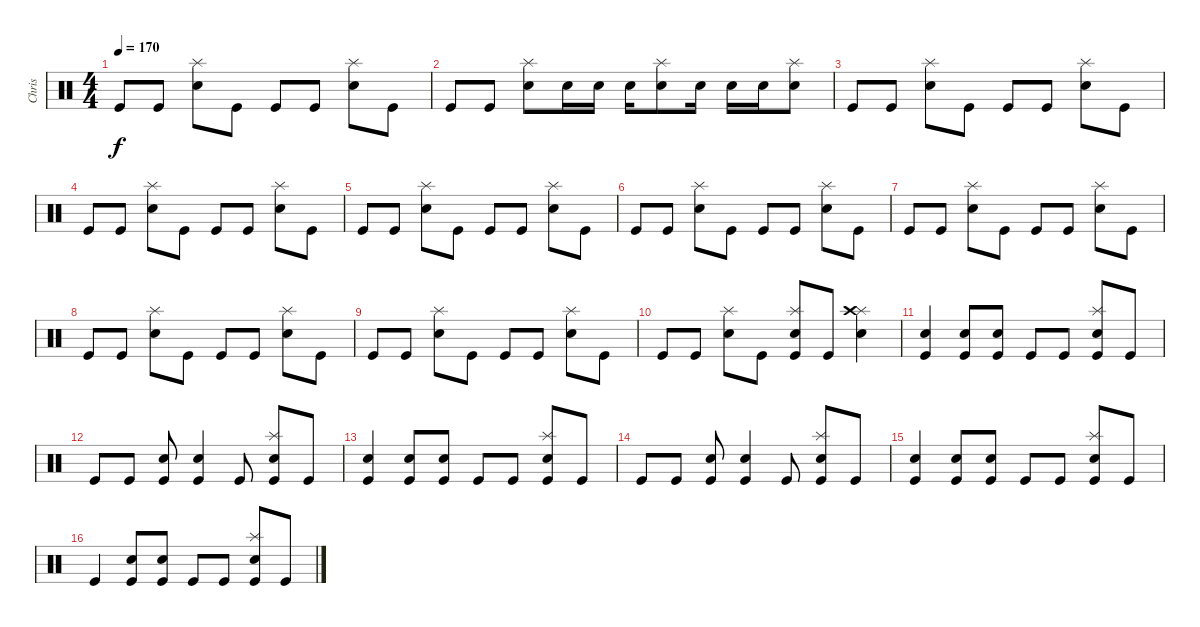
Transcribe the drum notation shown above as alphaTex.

\track ("Chris" "Chris") {instrument percussion}
\staff {score}
\articulation defaults
\ts (4 4)
\tempo 170
\clef neutral
\ks c "Kick (hit)".8{dy f} "Kick (hit)".8
("Splash (hit)" "Snare (hit) 2").8 "Kick (hit)".8 "Kick (hit)".8 "Kick (hit)".8 ("Splash (hit)" "Snare (hit) 2").8 "Kick (hit)".8 |
"Kick (hit)".8 "Kick (hit)".8 ("Splash (hit)" "Snare (hit) 2").8 "Electric Snare (hit)".16 "Electric Snare (hit)".16 "Electric Snare (hit)".16 ("Splash (hit)" "Snare (hit) 2").8 "Electric Snare (hit)".16 "Electric Snare (hit)".16 "Electric Snare (hit)".16 ("Splash (hit)" "Snare (hit) 2").8 |
"Kick (hit)".8 "Kick (hit)".8 ("Splash (hit)" "Snare (hit) 2").8 "Kick (hit)".8 "Kick (hit)".8 "Kick (hit)".8 ("Splash (hit)" "Snare (hit) 2").8 "Kick (hit)".8 |
"Kick (hit)".8 "Kick (hit)".8 ("Splash (hit)" "Snare (hit) 2").8 "Kick (hit)".8 "Kick (hit)".8 "Kick (hit)".8 ("Splash (hit)" "Snare (hit) 2").8 "Kick (hit)".8 |
"Kick (hit)".8 "Kick (hit)".8 ("Splash (hit)" "Snare (hit) 2").8 "Kick (hit)".8 "Kick (hit)".8 "Kick (hit)".8 ("Splash (hit)" "Snare (hit) 2").8 "Kick (hit)".8 |
"Kick (hit)".8 "Kick (hit)".8 ("Splash (hit)" "Snare (hit) 2").8 "Kick (hit)".8 "Kick (hit)".8 "Kick (hit)".8 ("Splash (hit)" "Snare (hit) 2").8 "Kick (hit)".8 |
"Kick (hit)".8 "Kick (hit)".8 ("Splash (hit)" "Snare (hit) 2").8 "Kick (hit)".8 "Kick (hit)".8 "Kick (hit)".8 ("Splash (hit)" "Snare (hit) 2").8 "Kick (hit)".8 |
"Kick (hit)".8 "Kick (hit)".8 ("Splash (hit)" "Snare (hit) 2").8 "Kick (hit)".8 "Kick (hit)".8 "Kick (hit)".8 ("Splash (hit)" "Snare (hit) 2").8 "Kick (hit)".8 |
"Kick (hit)".8 "Kick (hit)".8 ("Splash (hit)" "Snare (hit) 2").8 "Kick (hit)".8 "Kick (hit)".8 "Kick (hit)".8 ("Splash (hit)" "Snare (hit) 2").8 "Kick (hit)".8 |
"Kick (hit)".8 "Kick (hit)".8 ("Splash (hit)" "Snare (hit) 2").8 "Kick (hit)".8 ("Kick (hit)" "Splash (hit)" "Snare (hit) 2").8 "Kick (hit)".8 ("Splash (hit)" "Crash high (hit)" "Snare (hit) 2").4 |
("Kick (hit)" "Snare (hit) 2").4 ("Kick (hit)" "Snare (hit) 2").8 ("Kick (hit)" "Snare (hit) 2").8 "Kick (hit)".8 "Kick (hit)".8 ("Kick (hit)" "Splash (hit)" "Snare (hit) 2").8 "Kick (hit)".8 |
"Kick (hit)".8 "Kick (hit)".8 ("Kick (hit)" "Snare (hit) 2").8 ("Kick (hit)" "Snare (hit) 2").4 "Kick (hit)".8 ("Kick (hit)" "Splash (hit)" "Snare (hit) 2").8 "Kick (hit)".8 |
("Kick (hit)" "Snare (hit) 2").4 ("Kick (hit)" "Snare (hit) 2").8 ("Kick (hit)" "Snare (hit) 2").8 "Kick (hit)".8 "Kick (hit)".8 ("Kick (hit)" "Splash (hit)" "Snare (hit) 2").8 "Kick (hit)".8 |
"Kick (hit)".8 "Kick (hit)".8 ("Kick (hit)" "Snare (hit) 2").8 ("Kick (hit)" "Snare (hit) 2").4 "Kick (hit)".8 ("Kick (hit)" "Splash (hit)" "Snare (hit) 2").8 "Kick (hit)".8 |
("Kick (hit)" "Snare (hit) 2").4 ("Kick (hit)" "Snare (hit) 2").8 ("Kick (hit)" "Snare (hit) 2").8 "Kick (hit)".8 "Kick (hit)".8 ("Kick (hit)" "Splash (hit)" "Snare (hit) 2").8 "Kick (hit)".8 |
"Kick (hit)".4 ("Kick (hit)" "Snare (hit) 2").8 ("Kick (hit)" "Snare (hit) 2").8 "Kick (hit)".8 "Kick (hit)".8 ("Kick (hit)" "Splash (hit)" "Snare (hit) 2").8 "Kick (hit)".8
